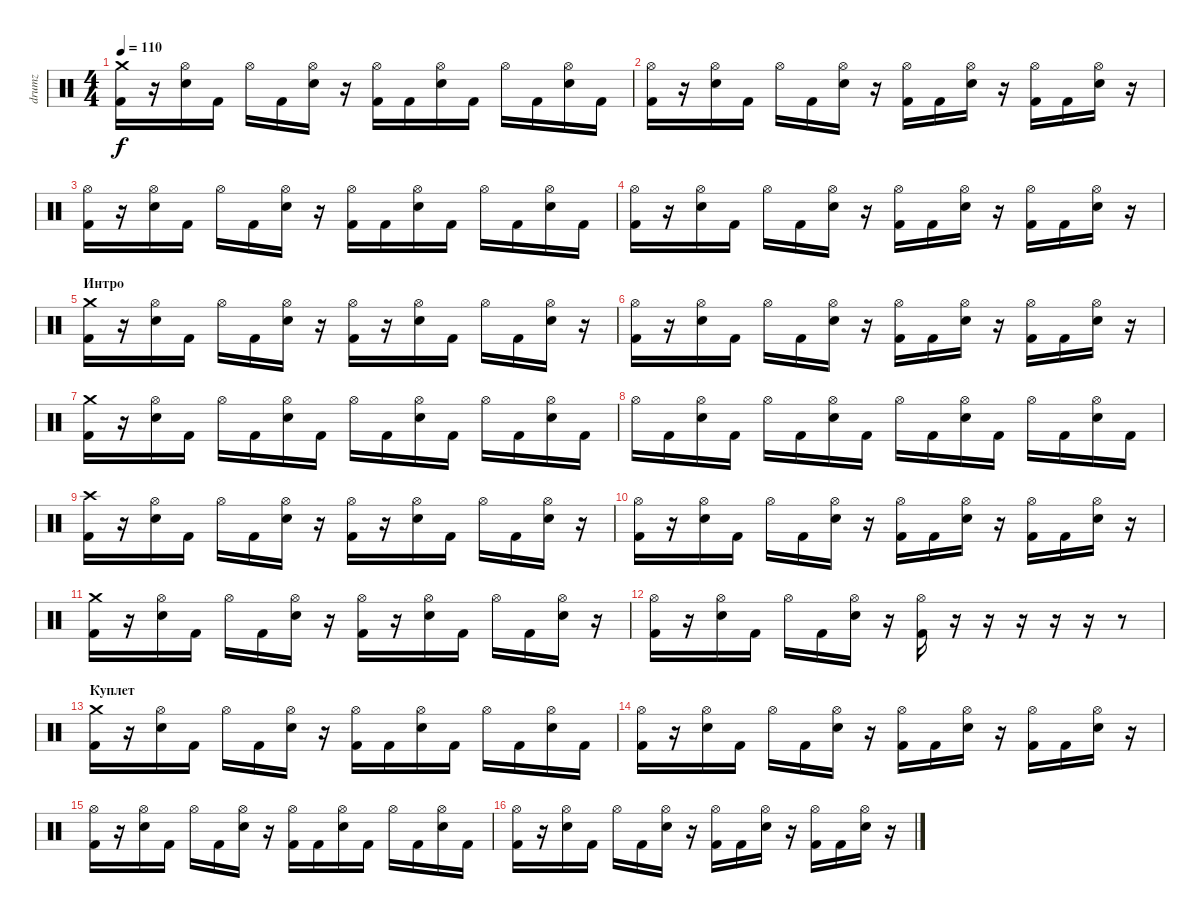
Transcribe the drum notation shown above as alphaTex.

\track ("drumz" "drumz") {instrument percussion}
\staff {score}
\articulation defaults
\ts (4 4)
\tempo 110
\clef neutral
\ks c
("Crash medium (hit)" "Kick (hit) 2").16{dy f} r.16 ("Hi-Hat (open)" "Electric Snare (hit)").16 "Kick (hit) 2".16 "Hi-Hat (open)".16 "Kick (hit) 2".16 ("Hi-Hat (open)" "Electric Snare (hit)").16 r.16 ("Hi-Hat (open)" "Kick (hit) 2").16 "Kick (hit) 2".16 ("Hi-Hat (open)" "Electric Snare (hit)").16 "Kick (hit) 2".16 "Hi-Hat (open)".16 "Kick (hit) 2".16 ("Hi-Hat (open)" "Electric Snare (hit)").16 "Kick (hit) 2".16 |
("Hi-Hat (open)" "Kick (hit) 2").16 r.16 ("Hi-Hat (open)" "Electric Snare (hit)").16 "Kick (hit) 2".16 "Hi-Hat (open)".16 "Kick (hit) 2".16 ("Hi-Hat (open)" "Electric Snare (hit)").16 r.16 ("Hi-Hat (open)" "Kick (hit) 2").16 "Kick (hit) 2".16 ("Hi-Hat (open)" "Electric Snare (hit)").16 r.16 ("Hi-Hat (open)" "Kick (hit) 2").16 "Kick (hit) 2".16 ("Hi-Hat (open)" "Electric Snare (hit)").16 r.16 |
("Hi-Hat (open)" "Kick (hit) 2").16 r.16 ("Hi-Hat (open)" "Electric Snare (hit)").16 "Kick (hit) 2".16 "Hi-Hat (open)".16 "Kick (hit) 2".16 ("Hi-Hat (open)" "Electric Snare (hit)").16 r.16 ("Hi-Hat (open)" "Kick (hit) 2").16 "Kick (hit) 2".16 ("Hi-Hat (open)" "Electric Snare (hit)").16 "Kick (hit) 2".16 "Hi-Hat (open)".16 "Kick (hit) 2".16 ("Hi-Hat (open)" "Electric Snare (hit)").16 "Kick (hit) 2".16 |
("Hi-Hat (open)" "Kick (hit) 2").16 r.16 ("Hi-Hat (open)" "Electric Snare (hit)").16 "Kick (hit) 2".16 "Hi-Hat (open)".16 "Kick (hit) 2".16 ("Hi-Hat (open)" "Electric Snare (hit)").16 r.16 ("Hi-Hat (open)" "Kick (hit) 2").16 "Kick (hit) 2".16 ("Hi-Hat (open)" "Electric Snare (hit)").16 r.16 ("Hi-Hat (open)" "Kick (hit) 2").16 "Kick (hit) 2".16 ("Hi-Hat (open)" "Electric Snare (hit)").16 r.16 |
\section ("" "Интро")
("Crash medium (hit)" "Kick (hit) 2").16 r.16 ("Hi-Hat (open)" "Electric Snare (hit)").16 "Kick (hit) 2".16 "Hi-Hat (open)".16 "Kick (hit) 2".16 ("Hi-Hat (open)" "Electric Snare (hit)").16 r.16 ("Hi-Hat (open)" "Kick (hit) 2").16 r.16 ("Hi-Hat (open)" "Electric Snare (hit)").16 "Kick (hit) 2".16 "Hi-Hat (open)".16 "Kick (hit) 2".16 ("Hi-Hat (open)" "Electric Snare (hit)").16 r.16 |
("Hi-Hat (open)" "Kick (hit) 2").16 r.16 ("Hi-Hat (open)" "Electric Snare (hit)").16 "Kick (hit) 2".16 "Hi-Hat (open)".16 "Kick (hit) 2".16 ("Hi-Hat (open)" "Electric Snare (hit)").16 r.16 ("Hi-Hat (open)" "Kick (hit) 2").16 "Kick (hit) 2".16 ("Hi-Hat (open)" "Electric Snare (hit)").16 r.16 ("Hi-Hat (open)" "Kick (hit) 2").16 "Kick (hit) 2".16 ("Hi-Hat (open)" "Electric Snare (hit)").16 r.16 |
("Crash medium (hit)" "Kick (hit) 2").16 r.16 ("Hi-Hat (open)" "Electric Snare (hit)").16 "Kick (hit) 2".16 "Hi-Hat (open)".16 "Kick (hit) 2".16 ("Hi-Hat (open)" "Electric Snare (hit)").16 "Kick (hit) 2".16 "Hi-Hat (open)".16 "Kick (hit) 2".16 ("Hi-Hat (open)" "Electric Snare (hit)").16 "Kick (hit) 2".16 "Hi-Hat (open)".16 "Kick (hit) 2".16 ("Hi-Hat (open)" "Electric Snare (hit)").16 "Kick (hit) 2".16 |
"Hi-Hat (open)".16 "Kick (hit) 2".16 ("Hi-Hat (open)" "Electric Snare (hit)").16 "Kick (hit) 2".16 "Hi-Hat (open)".16 "Kick (hit) 2".16 ("Hi-Hat (open)" "Electric Snare (hit)").16 "Kick (hit) 2".16 "Hi-Hat (open)".16 "Kick (hit) 2".16 ("Hi-Hat (open)" "Electric Snare (hit)").16 "Kick (hit) 2".16 "Hi-Hat (open)".16 "Kick (hit) 2".16 ("Hi-Hat (open)" "Electric Snare (hit)").16 "Kick (hit) 2".16 |
("Crash high (hit)" "Kick (hit) 2").16 r.16 ("Hi-Hat (open)" "Electric Snare (hit)").16 "Kick (hit) 2".16 "Hi-Hat (open)".16 "Kick (hit) 2".16 ("Hi-Hat (open)" "Electric Snare (hit)").16 r.16 ("Hi-Hat (open)" "Kick (hit) 2").16 r.16 ("Hi-Hat (open)" "Electric Snare (hit)").16 "Kick (hit) 2".16 "Hi-Hat (open)".16 "Kick (hit) 2".16 ("Hi-Hat (open)" "Electric Snare (hit)").16 r.16 |
("Hi-Hat (open)" "Kick (hit) 2").16 r.16 ("Hi-Hat (open)" "Electric Snare (hit)").16 "Kick (hit) 2".16 "Hi-Hat (open)".16 "Kick (hit) 2".16 ("Hi-Hat (open)" "Electric Snare (hit)").16 r.16 ("Hi-Hat (open)" "Kick (hit) 2").16 "Kick (hit) 2".16 ("Hi-Hat (open)" "Electric Snare (hit)").16 r.16 ("Hi-Hat (open)" "Kick (hit) 2").16 "Kick (hit) 2".16 ("Hi-Hat (open)" "Electric Snare (hit)").16 r.16 |
("Crash medium (hit)" "Kick (hit) 2").16 r.16 ("Hi-Hat (open)" "Electric Snare (hit)").16 "Kick (hit) 2".16 "Hi-Hat (open)".16 "Kick (hit) 2".16 ("Hi-Hat (open)" "Electric Snare (hit)").16 r.16 ("Hi-Hat (open)" "Kick (hit) 2").16 r.16 ("Hi-Hat (open)" "Electric Snare (hit)").16 "Kick (hit) 2".16 "Hi-Hat (open)".16 "Kick (hit) 2".16 ("Hi-Hat (open)" "Electric Snare (hit)").16 r.16 |
("Hi-Hat (open)" "Kick (hit) 2").16 r.16 ("Hi-Hat (open)" "Electric Snare (hit)").16 "Kick (hit) 2".16 "Hi-Hat (open)".16 "Kick (hit) 2".16 ("Hi-Hat (open)" "Electric Snare (hit)").16 r.16 ("Hi-Hat (open)" "Kick (hit) 2").16 r.16 r.16 r.16 r.16 r.16 r.8 |
\section ("" "Куплет")
("Crash medium (hit)" "Kick (hit) 2").16 r.16 ("Hi-Hat (open)" "Electric Snare (hit)").16 "Kick (hit) 2".16 "Hi-Hat (open)".16 "Kick (hit) 2".16 ("Hi-Hat (open)" "Electric Snare (hit)").16 r.16 ("Hi-Hat (open)" "Kick (hit) 2").16 "Kick (hit) 2".16 ("Hi-Hat (open)" "Electric Snare (hit)").16 "Kick (hit) 2".16 "Hi-Hat (open)".16 "Kick (hit) 2".16 ("Hi-Hat (open)" "Electric Snare (hit)").16 "Kick (hit) 2".16 |
("Hi-Hat (open)" "Kick (hit) 2").16 r.16 ("Hi-Hat (open)" "Electric Snare (hit)").16 "Kick (hit) 2".16 "Hi-Hat (open)".16 "Kick (hit) 2".16 ("Hi-Hat (open)" "Electric Snare (hit)").16 r.16 ("Hi-Hat (open)" "Kick (hit) 2").16 "Kick (hit) 2".16 ("Hi-Hat (open)" "Electric Snare (hit)").16 r.16 ("Hi-Hat (open)" "Kick (hit) 2").16 "Kick (hit) 2".16 ("Hi-Hat (open)" "Electric Snare (hit)").16 r.16 |
("Hi-Hat (open)" "Kick (hit) 2").16 r.16 ("Hi-Hat (open)" "Electric Snare (hit)").16 "Kick (hit) 2".16 "Hi-Hat (open)".16 "Kick (hit) 2".16 ("Hi-Hat (open)" "Electric Snare (hit)").16 r.16 ("Hi-Hat (open)" "Kick (hit) 2").16 "Kick (hit) 2".16 ("Hi-Hat (open)" "Electric Snare (hit)").16 "Kick (hit) 2".16 "Hi-Hat (open)".16 "Kick (hit) 2".16 ("Hi-Hat (open)" "Electric Snare (hit)").16 "Kick (hit) 2".16 |
("Hi-Hat (open)" "Kick (hit) 2").16 r.16 ("Hi-Hat (open)" "Electric Snare (hit)").16 "Kick (hit) 2".16 "Hi-Hat (open)".16 "Kick (hit) 2".16 ("Hi-Hat (open)" "Electric Snare (hit)").16 r.16 ("Hi-Hat (open)" "Kick (hit) 2").16 "Kick (hit) 2".16 ("Hi-Hat (open)" "Electric Snare (hit)").16 r.16 ("Hi-Hat (open)" "Kick (hit) 2").16 "Kick (hit) 2".16 ("Hi-Hat (open)" "Electric Snare (hit)").16 r.16
